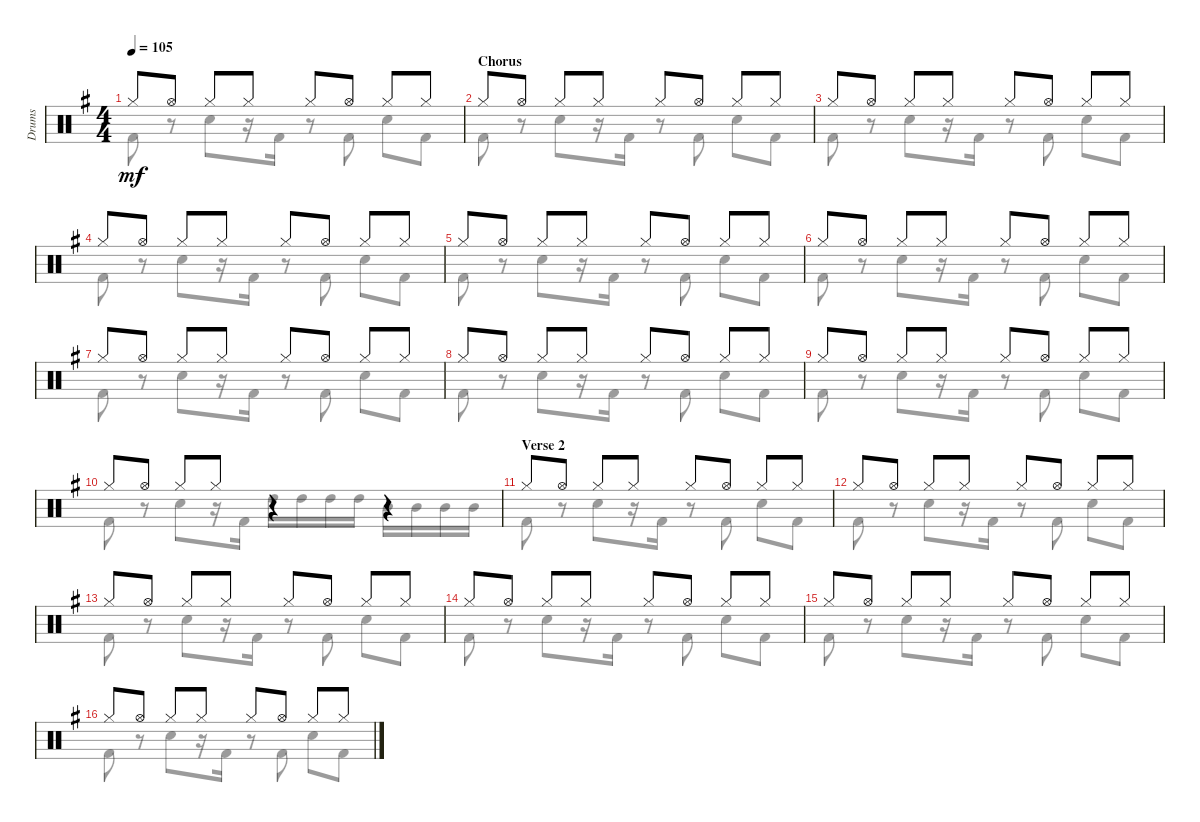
\track ("Drums" "Drums") {instrument percussion}
\staff {score}
\articulation defaults
\voice
\ts (4 4)
\tempo 105
\clef neutral
\ks eminor "Hi-Hat (closed)".8{dy mf} "Hi-Hat (open)".8 "Hi-Hat (closed)".8 "Hi-Hat (closed)".8 "Hi-Hat (closed)".8 "Hi-Hat (open)".8 "Hi-Hat (closed)".8 "Hi-Hat (closed)".8
|
\section ("" "Chorus")
"Hi-Hat (closed)".8 "Hi-Hat (open)".8 "Hi-Hat (closed)".8 "Hi-Hat (closed)".8 "Hi-Hat (closed)".8 "Hi-Hat (open)".8 "Hi-Hat (closed)".8 "Hi-Hat (closed)".8 |
"Hi-Hat (closed)".8 "Hi-Hat (open)".8 "Hi-Hat (closed)".8 "Hi-Hat (closed)".8 "Hi-Hat (closed)".8 "Hi-Hat (open)".8 "Hi-Hat (closed)".8 "Hi-Hat (closed)".8 |
"Hi-Hat (closed)".8 "Hi-Hat (open)".8 "Hi-Hat (closed)".8 "Hi-Hat (closed)".8 "Hi-Hat (closed)".8 "Hi-Hat (open)".8 "Hi-Hat (closed)".8 "Hi-Hat (closed)".8 |
"Hi-Hat (closed)".8 "Hi-Hat (open)".8 "Hi-Hat (closed)".8 "Hi-Hat (closed)".8 "Hi-Hat (closed)".8 "Hi-Hat (open)".8 "Hi-Hat (closed)".8 "Hi-Hat (closed)".8 |
"Hi-Hat (closed)".8 "Hi-Hat (open)".8 "Hi-Hat (closed)".8 "Hi-Hat (closed)".8 "Hi-Hat (closed)".8 "Hi-Hat (open)".8 "Hi-Hat (closed)".8 "Hi-Hat (closed)".8 |
"Hi-Hat (closed)".8 "Hi-Hat (open)".8 "Hi-Hat (closed)".8 "Hi-Hat (closed)".8 "Hi-Hat (closed)".8 "Hi-Hat (open)".8 "Hi-Hat (closed)".8 "Hi-Hat (closed)".8 |
"Hi-Hat (closed)".8 "Hi-Hat (open)".8 "Hi-Hat (closed)".8 "Hi-Hat (closed)".8 "Hi-Hat (closed)".8 "Hi-Hat (open)".8 "Hi-Hat (closed)".8 "Hi-Hat (closed)".8 |
"Hi-Hat (closed)".8 "Hi-Hat (open)".8 "Hi-Hat (closed)".8 "Hi-Hat (closed)".8 "Hi-Hat (closed)".8 "Hi-Hat (open)".8 "Hi-Hat (closed)".8 "Hi-Hat (closed)".8 |
"Hi-Hat (closed)".8 "Hi-Hat (open)".8 "Hi-Hat (closed)".8 "Hi-Hat (closed)".8 r.4 r.4 |
\section ("" "Verse 2")
"Hi-Hat (closed)".8 "Hi-Hat (open)".8 "Hi-Hat (closed)".8 "Hi-Hat (closed)".8 "Hi-Hat (closed)".8 "Hi-Hat (open)".8 "Hi-Hat (closed)".8 "Hi-Hat (closed)".8 |
"Hi-Hat (closed)".8 "Hi-Hat (open)".8 "Hi-Hat (closed)".8 "Hi-Hat (closed)".8 "Hi-Hat (closed)".8 "Hi-Hat (open)".8 "Hi-Hat (closed)".8 "Hi-Hat (closed)".8 |
"Hi-Hat (closed)".8 "Hi-Hat (open)".8 "Hi-Hat (closed)".8 "Hi-Hat (closed)".8 "Hi-Hat (closed)".8 "Hi-Hat (open)".8 "Hi-Hat (closed)".8 "Hi-Hat (closed)".8 |
"Hi-Hat (closed)".8 "Hi-Hat (open)".8 "Hi-Hat (closed)".8 "Hi-Hat (closed)".8 "Hi-Hat (closed)".8 "Hi-Hat (open)".8 "Hi-Hat (closed)".8 "Hi-Hat (closed)".8 |
"Hi-Hat (closed)".8 "Hi-Hat (open)".8 "Hi-Hat (closed)".8 "Hi-Hat (closed)".8 "Hi-Hat (closed)".8 "Hi-Hat (open)".8 "Hi-Hat (closed)".8 "Hi-Hat (closed)".8 |
"Hi-Hat (closed)".8 "Hi-Hat (open)".8 "Hi-Hat (closed)".8 "Hi-Hat (closed)".8 "Hi-Hat (closed)".8 "Hi-Hat (open)".8 "Hi-Hat (closed)".8 "Hi-Hat (closed)".8
\voice
\clef neutral
\ottava regular
\simile none
\ks eminor "Kick (hit) 2".8{dy mf}
r.8 "Snare (hit) 2".8 r.16 "Kick (hit) 2".16 r.8 "Kick (hit) 2".8 "Snare (hit) 2".8 "Kick (hit) 2".8 |
"Kick (hit) 2".8 r.8 "Snare (hit) 2".8 r.16 "Kick (hit) 2".16 r.8 "Kick (hit) 2".8 "Snare (hit) 2".8 "Kick (hit) 2".8 |
"Kick (hit) 2".8 r.8 "Snare (hit) 2".8 r.16 "Kick (hit) 2".16 r.8 "Kick (hit) 2".8 "Snare (hit) 2".8 "Kick (hit) 2".8 |
"Kick (hit) 2".8 r.8 "Snare (hit) 2".8 r.16 "Kick (hit) 2".16 r.8 "Kick (hit) 2".8 "Snare (hit) 2".8 "Kick (hit) 2".8 |
"Kick (hit) 2".8 r.8 "Snare (hit) 2".8 r.16 "Kick (hit) 2".16 r.8 "Kick (hit) 2".8 "Snare (hit) 2".8 "Kick (hit) 2".8 |
"Kick (hit) 2".8 r.8 "Snare (hit) 2".8 r.16 "Kick (hit) 2".16 r.8 "Kick (hit) 2".8 "Snare (hit) 2".8 "Kick (hit) 2".8 |
"Kick (hit) 2".8 r.8 "Snare (hit) 2".8 r.16 "Kick (hit) 2".16 r.8 "Kick (hit) 2".8 "Snare (hit) 2".8 "Kick (hit) 2".8 |
"Kick (hit) 2".8 r.8 "Snare (hit) 2".8 r.16 "Kick (hit) 2".16 r.8 "Kick (hit) 2".8 "Snare (hit) 2".8 "Kick (hit) 2".8 |
"Kick (hit) 2".8 r.8 "Snare (hit) 2".8 r.16 "Kick (hit) 2".16 r.8 "Kick (hit) 2".8 "Snare (hit) 2".8 "Kick (hit) 2".8 |
"Kick (hit) 2".8 r.8 "Snare (hit) 2".8 r.16 "Kick (hit) 2".16 "High Tom (hit)".16 "High Tom (hit)".16 "High Tom (hit)".16 "High Tom (hit)".16 "Mid Tom (hit)".16 "Mid Tom (hit)".16 "Mid Tom (hit)".16 "Mid Tom (hit)".16 |
"Kick (hit) 2".8 r.8 "Snare (hit) 2".8 r.16 "Kick (hit) 2".16 r.8 "Kick (hit) 2".8 "Snare (hit) 2".8 "Kick (hit) 2".8 |
"Kick (hit) 2".8 r.8 "Snare (hit) 2".8 r.16 "Kick (hit) 2".16 r.8 "Kick (hit) 2".8 "Snare (hit) 2".8 "Kick (hit) 2".8 |
"Kick (hit) 2".8 r.8 "Snare (hit) 2".8 r.16 "Kick (hit) 2".16 r.8 "Kick (hit) 2".8 "Snare (hit) 2".8 "Kick (hit) 2".8 |
"Kick (hit) 2".8 r.8 "Snare (hit) 2".8 r.16 "Kick (hit) 2".16 r.8 "Kick (hit) 2".8 "Snare (hit) 2".8 "Kick (hit) 2".8 |
"Kick (hit) 2".8 r.8 "Snare (hit) 2".8 r.16 "Kick (hit) 2".16 r.8 "Kick (hit) 2".8 "Snare (hit) 2".8 "Kick (hit) 2".8 |
"Kick (hit) 2".8 r.8 "Snare (hit) 2".8 r.16 "Kick (hit) 2".16 r.8 "Kick (hit) 2".8 "Snare (hit) 2".8 "Kick (hit) 2".8
